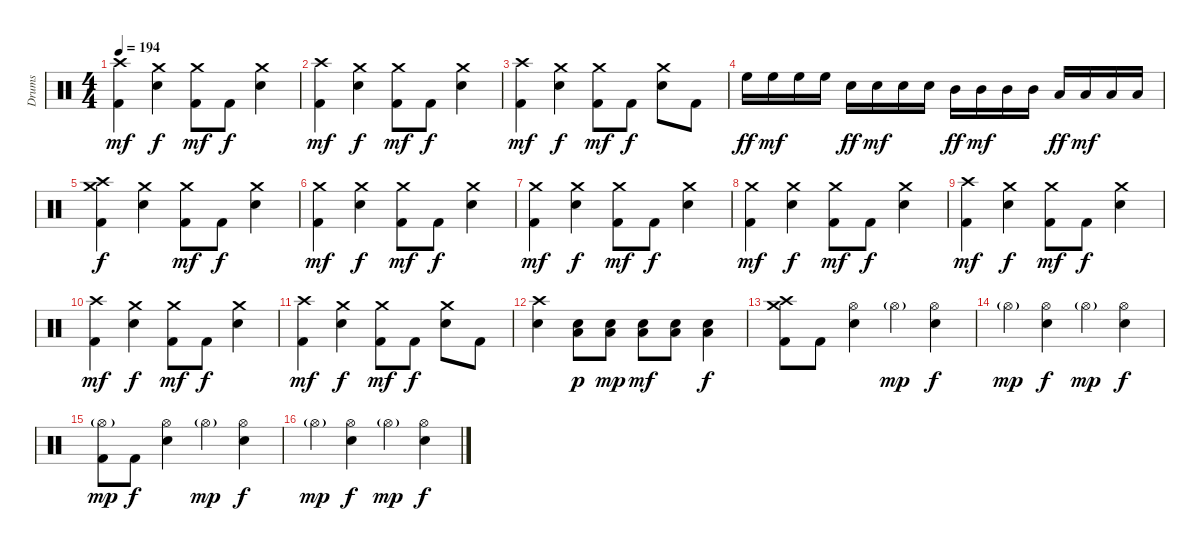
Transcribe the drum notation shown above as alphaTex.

\track ("Drums" "Drums") {instrument percussion}
\staff {score}
\articulation defaults
\ts (4 4)
\tempo 194
\clef neutral
\ks c
("Crash high (hit)" "Kick (hit) 2").4{dy mf} ("Crash medium (hit)" "Electric Snare (hit)").4{dy f} ("Crash medium (hit)" "Kick (hit) 2").8{dy mf} "Kick (hit) 2".8{dy f} ("Crash medium (hit)" "Electric Snare (hit)").4 |
("Crash high (hit)" "Kick (hit) 2").4{dy mf} ("Crash medium (hit)" "Electric Snare (hit)").4{dy f} ("Crash medium (hit)" "Kick (hit) 2").8{dy mf} "Kick (hit) 2".8{dy f} ("Crash medium (hit)" "Electric Snare (hit)").4 |
("Crash high (hit)" "Kick (hit) 2").4{dy mf} ("Crash medium (hit)" "Electric Snare (hit)").4{dy f} ("Crash medium (hit)" "Kick (hit) 2").8{dy mf} "Kick (hit) 2".8{dy f} ("Crash medium (hit)" "Electric Snare (hit)").8 "Kick (hit) 2".8 |
"High Floor Tom (hit)".16{dy ff} "High Floor Tom (hit)".16{dy mf} "High Floor Tom (hit)".16 "High Floor Tom (hit)".16 "Electric Snare (hit)".16{dy ff} "Electric Snare (hit)".16{dy mf} "Electric Snare (hit)".16 "Electric Snare (hit)".16 "Mid Tom (hit)".16{dy ff} "Mid Tom (hit)".16{dy mf} "Mid Tom (hit)".16 "Mid Tom (hit)".16 "Low Tom (hit)".16{dy ff} "Low Tom (hit)".16{dy mf} "Low Tom (hit)".16 "Low Tom (hit)".16 |
("Crash high (hit)" "Crash medium (hit)" "Kick (hit) 2").4{dy f} ("Crash medium (hit)" "Electric Snare (hit)").4 ("Crash medium (hit)" "Kick (hit) 2").8{dy mf} "Kick (hit) 2".8{dy f} ("Crash medium (hit)" "Electric Snare (hit)").4 |
("Crash medium (hit)" "Kick (hit) 2").4{dy mf} ("Crash medium (hit)" "Electric Snare (hit)").4{dy f} ("Crash medium (hit)" "Kick (hit) 2").8{dy mf} "Kick (hit) 2".8{dy f} ("Crash medium (hit)" "Electric Snare (hit)").4 |
("Crash medium (hit)" "Kick (hit) 2").4{dy mf} ("Crash medium (hit)" "Electric Snare (hit)").4{dy f} ("Crash medium (hit)" "Kick (hit) 2").8{dy mf} "Kick (hit) 2".8{dy f} ("Crash medium (hit)" "Electric Snare (hit)").4 |
("Crash medium (hit)" "Kick (hit) 2").4{dy mf} ("Crash medium (hit)" "Electric Snare (hit)").4{dy f} ("Crash medium (hit)" "Kick (hit) 2").8{dy mf} "Kick (hit) 2".8{dy f} ("Crash medium (hit)" "Electric Snare (hit)").4 |
("Crash high (hit)" "Kick (hit) 2").4{dy mf} ("Crash medium (hit)" "Electric Snare (hit)").4{dy f} ("Crash medium (hit)" "Kick (hit) 2").8{dy mf} "Kick (hit) 2".8{dy f} ("Crash medium (hit)" "Electric Snare (hit)").4 |
("Crash high (hit)" "Kick (hit) 2").4{dy mf} ("Crash medium (hit)" "Electric Snare (hit)").4{dy f} ("Crash medium (hit)" "Kick (hit) 2").8{dy mf} "Kick (hit) 2".8{dy f} ("Crash medium (hit)" "Electric Snare (hit)").4 |
("Crash high (hit)" "Kick (hit) 2").4{dy mf} ("Crash medium (hit)" "Electric Snare (hit)").4{dy f} ("Crash medium (hit)" "Kick (hit) 2").8{dy mf} "Kick (hit) 2".8{dy f} ("Crash medium (hit)" "Electric Snare (hit)").8 "Kick (hit) 2".8 |
("Crash high (hit)" "Electric Snare (hit)").4 ("Low Tom (hit)" "Electric Snare (hit)").8{dy p} ("Low Tom (hit)" "Electric Snare (hit)").8{dy mp} ("Low Tom (hit)" "Electric Snare (hit)").8{dy mf} ("Low Tom (hit)" "Electric Snare (hit)").8 ("Low Tom (hit)" "Electric Snare (hit)").4{dy f} |
("Crash high (hit)" "Crash medium (hit)" "Kick (hit) 2").8 "Kick (hit) 2".8 ("Hi-Hat (open)" "Electric Snare (hit)").4 "Hi-Hat (open)"{g}.4{dy mp} ("Hi-Hat (open)" "Electric Snare (hit)").4{dy f} |
"Hi-Hat (open)"{g}.4{dy mp} ("Hi-Hat (open)" "Electric Snare (hit)").4{dy f} "Hi-Hat (open)"{g}.4{dy mp} ("Hi-Hat (open)" "Electric Snare (hit)").4{dy f} |
("Hi-Hat (open)"{g} "Kick (hit) 2").8{dy mp} "Kick (hit) 2".8{dy f} ("Hi-Hat (open)" "Electric Snare (hit)").4 "Hi-Hat (open)"{g}.4{dy mp} ("Hi-Hat (open)" "Electric Snare (hit)").4{dy f} |
"Hi-Hat (open)"{g}.4{dy mp} ("Hi-Hat (open)" "Electric Snare (hit)").4{dy f} "Hi-Hat (open)"{g}.4{dy mp} ("Hi-Hat (open)" "Electric Snare (hit)").4{dy f}
